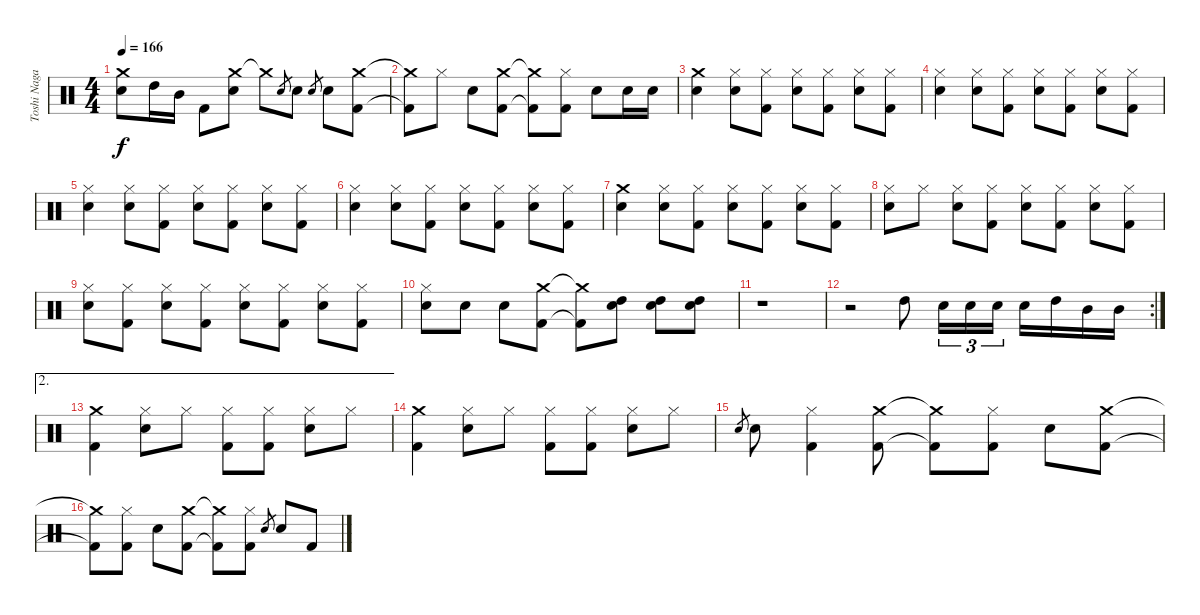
\track ("Toshi Nagai" "Toshi Naga") {instrument percussion}
\staff {score}
\articulation defaults
\ts (4 4)
\tempo 166
\clef neutral
\ks c
("Crash medium (hit)" "Electric Snare (hit)").8{dy f} "High Tom (hit)".16 "Mid Tom (hit)".16 "Kick (hit) 2".8 ("Crash medium (hit)" "Electric Snare (hit)").8 "Crash medium (hit)"{t}.8 "Electric Snare (hit)".8{gr} "Electric Snare (hit)".8 "Electric Snare (hit)".8{gr} "Electric Snare (hit)".8 ("Crash medium (hit)" "Kick (hit) 2").8 |
("Crash medium (hit)"{t} "Kick (hit) 2"{t}).8 "Hi-Hat (closed)".8 "Electric Snare (hit)".8 ("Crash medium (hit)" "Kick (hit) 2").8 ("Crash medium (hit)"{t} "Kick (hit) 2"{t}).8 ("Hi-Hat (closed)" "Kick (hit) 2").8 "Electric Snare (hit)".8 "Electric Snare (hit)".16 "Electric Snare (hit)".16 |
("Crash medium (hit)" "Electric Snare (hit)").4 ("Hi-Hat (closed)" "Electric Snare (hit)").8 ("Hi-Hat (closed)" "Kick (hit) 2").8 ("Hi-Hat (closed)" "Electric Snare (hit)").8 ("Hi-Hat (closed)" "Kick (hit) 2").8 ("Hi-Hat (closed)" "Electric Snare (hit)").8 ("Hi-Hat (closed)" "Kick (hit) 2").8 |
("Hi-Hat (closed)" "Electric Snare (hit)").4 ("Hi-Hat (closed)" "Electric Snare (hit)").8 ("Hi-Hat (closed)" "Kick (hit) 2").8 ("Hi-Hat (closed)" "Electric Snare (hit)").8 ("Hi-Hat (closed)" "Kick (hit) 2").8 ("Hi-Hat (closed)" "Electric Snare (hit)").8 ("Hi-Hat (closed)" "Kick (hit) 2").8 |
("Hi-Hat (closed)" "Electric Snare (hit)").4 ("Hi-Hat (closed)" "Electric Snare (hit)").8 ("Hi-Hat (closed)" "Kick (hit) 2").8 ("Hi-Hat (closed)" "Electric Snare (hit)").8 ("Hi-Hat (closed)" "Kick (hit) 2").8 ("Hi-Hat (closed)" "Electric Snare (hit)").8 ("Hi-Hat (closed)" "Kick (hit) 2").8 |
("Hi-Hat (closed)" "Electric Snare (hit)").4 ("Hi-Hat (closed)" "Electric Snare (hit)").8 ("Hi-Hat (closed)" "Kick (hit) 2").8 ("Hi-Hat (closed)" "Electric Snare (hit)").8 ("Hi-Hat (closed)" "Kick (hit) 2").8 ("Hi-Hat (closed)" "Electric Snare (hit)").8 ("Hi-Hat (closed)" "Kick (hit) 2").8 |
("Crash medium (hit)" "Electric Snare (hit)").4 ("Hi-Hat (closed)" "Electric Snare (hit)").8 ("Hi-Hat (closed)" "Kick (hit) 2").8 ("Hi-Hat (closed)" "Electric Snare (hit)").8 ("Hi-Hat (closed)" "Kick (hit) 2").8 ("Hi-Hat (closed)" "Electric Snare (hit)").8 ("Hi-Hat (closed)" "Kick (hit) 2").8 |
("Hi-Hat (closed)" "Electric Snare (hit)").8 "Hi-Hat (closed)".8 ("Hi-Hat (closed)" "Electric Snare (hit)").8 ("Hi-Hat (closed)" "Kick (hit) 2").8 ("Hi-Hat (closed)" "Electric Snare (hit)").8 ("Hi-Hat (closed)" "Kick (hit) 2").8 ("Hi-Hat (closed)" "Electric Snare (hit)").8 ("Hi-Hat (closed)" "Kick (hit) 2").8 |
("Hi-Hat (closed)" "Electric Snare (hit)").8 ("Hi-Hat (closed)" "Kick (hit) 2").8 ("Hi-Hat (closed)" "Electric Snare (hit)").8 ("Hi-Hat (closed)" "Kick (hit) 2").8 ("Hi-Hat (closed)" "Electric Snare (hit)").8 ("Hi-Hat (closed)" "Kick (hit) 2").8 ("Hi-Hat (closed)" "Electric Snare (hit)").8 ("Hi-Hat (closed)" "Kick (hit) 2").8 |
("Hi-Hat (closed)" "Electric Snare (hit)").8 "Electric Snare (hit)".8 "Electric Snare (hit)".8 ("Crash medium (hit)" "Kick (hit) 2").8 ("Crash medium (hit)"{t} "Kick (hit) 2"{t}).8 ("High Tom (hit)" "Electric Snare (hit)").8 ("High Tom (hit)" "Electric Snare (hit)").8 ("High Tom (hit)" "Electric Snare (hit)").8 |
r.1 |
\rc 2
r.2 "High Tom (hit)".8 "Electric Snare (hit)".16{tu (3 2)} "Electric Snare (hit)".16{tu (3 2)} "Electric Snare (hit)".16{tu (3 2)} "Electric Snare (hit)".16 "High Tom (hit)".16 "Mid Tom (hit)".16 "Mid Tom (hit)".16 |
\ae 2
("Crash medium (hit)" "Kick (hit) 2").4 ("Hi-Hat (closed)" "Electric Snare (hit)").8 "Hi-Hat (closed)".8 ("Hi-Hat (closed)" "Kick (hit) 2").8 ("Hi-Hat (closed)" "Kick (hit) 2").8 ("Hi-Hat (closed)" "Electric Snare (hit)").8 "Hi-Hat (closed)".8 |
("Crash medium (hit)" "Kick (hit) 2").4 ("Hi-Hat (closed)" "Electric Snare (hit)").8 "Hi-Hat (closed)".8 ("Hi-Hat (closed)" "Kick (hit) 2").8 ("Hi-Hat (closed)" "Kick (hit) 2").8 ("Hi-Hat (closed)" "Electric Snare (hit)").8 "Hi-Hat (closed)".8 |
"Electric Snare (hit)".8{gr} "Electric Snare (hit)".8 ("Hi-Hat (closed)" "Kick (hit) 2").4 ("Crash medium (hit)" "Kick (hit) 2").8 ("Crash medium (hit)"{t} "Kick (hit) 2"{t}).8 ("Hi-Hat (closed)" "Kick (hit) 2").8 "Electric Snare (hit)".8 ("Crash medium (hit)" "Kick (hit) 2").8 |
("Crash medium (hit)"{t} "Kick (hit) 2"{t}).8 ("Hi-Hat (closed)" "Kick (hit) 2").8 "Electric Snare (hit)".8 ("Crash medium (hit)" "Kick (hit) 2").8 ("Crash medium (hit)"{t} "Kick (hit) 2"{t}).8 ("Hi-Hat (closed)" "Kick (hit) 2").8 "Electric Snare (hit)".8{gr} "Electric Snare (hit)".8 "Kick (hit) 2".8
